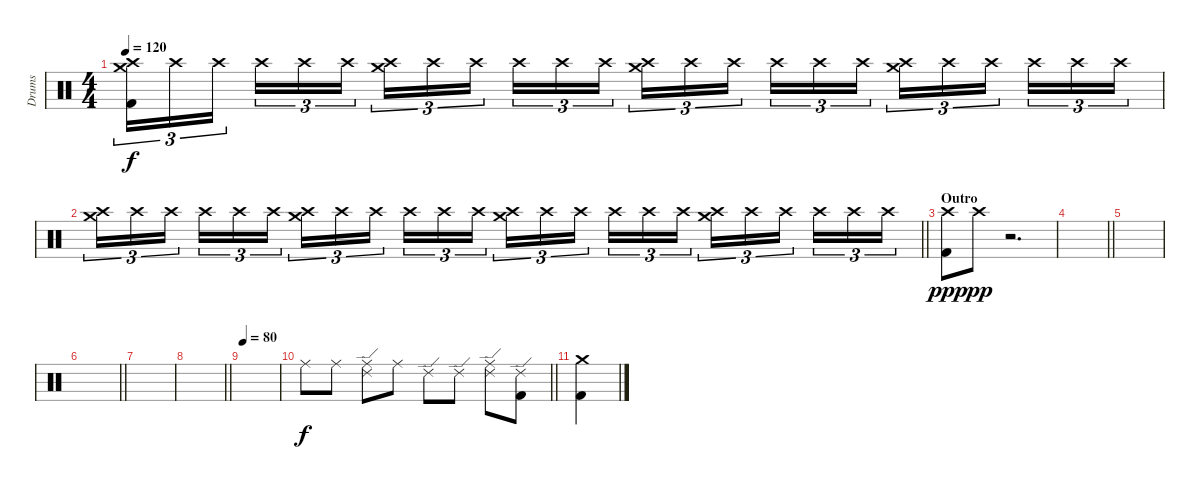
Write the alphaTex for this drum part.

\track ("Drums" "Drums") {instrument percussion}
\staff {score}
\articulation defaults
\ts (4 4)
\tempo 120
\clef neutral
\ks c
("Crash high (hit)" "Crash medium (hit)" "Kick (hit) 2").16{tu (3 2) dy f} "Crash high (hit)".16{tu (3 2)} "Crash high (hit)".16{tu (3 2) beam splitsecondary} "Crash high (hit)".16{tu (3 2)} "Crash high (hit)".16{tu (3 2)} "Crash high (hit)".16{tu (3 2)} ("Crash high (hit)" "Crash medium (hit)").16{tu (3 2)} "Crash high (hit)".16{tu (3 2)} "Crash high (hit)".16{tu (3 2) beam splitsecondary} "Crash high (hit)".16{tu (3 2)} "Crash high (hit)".16{tu (3 2)} "Crash high (hit)".16{tu (3 2)} ("Crash high (hit)" "Crash medium (hit)").16{tu (3 2)} "Crash high (hit)".16{tu (3 2)} "Crash high (hit)".16{tu (3 2) beam splitsecondary} "Crash high (hit)".16{tu (3 2)} "Crash high (hit)".16{tu (3 2)} "Crash high (hit)".16{tu (3 2)} ("Crash high (hit)" "Crash medium (hit)").16{tu (3 2)} "Crash high (hit)".16{tu (3 2)} "Crash high (hit)".16{tu (3 2) beam splitsecondary} "Crash high (hit)".16{tu (3 2)} "Crash high (hit)".16{tu (3 2)} "Crash high (hit)".16{tu (3 2)} |
\barLineRight lightlight
("Crash high (hit)" "Crash medium (hit)").16{tu (3 2)} "Crash high (hit)".16{tu (3 2)} "Crash high (hit)".16{tu (3 2) beam splitsecondary} "Crash high (hit)".16{tu (3 2)} "Crash high (hit)".16{tu (3 2)} "Crash high (hit)".16{tu (3 2)} ("Crash high (hit)" "Crash medium (hit)").16{tu (3 2)} "Crash high (hit)".16{tu (3 2)} "Crash high (hit)".16{tu (3 2) beam splitsecondary} "Crash high (hit)".16{tu (3 2)} "Crash high (hit)".16{tu (3 2)} "Crash high (hit)".16{tu (3 2)} ("Crash high (hit)" "Crash medium (hit)").16{tu (3 2)} "Crash high (hit)".16{tu (3 2)} "Crash high (hit)".16{tu (3 2) beam splitsecondary} "Crash high (hit)".16{tu (3 2)} "Crash high (hit)".16{tu (3 2)} "Crash high (hit)".16{tu (3 2)} ("Crash high (hit)" "Crash medium (hit)").16{tu (3 2)} "Crash high (hit)".16{tu (3 2)} "Crash high (hit)".16{tu (3 2) beam splitsecondary} "Crash high (hit)".16{tu (3 2)} "Crash high (hit)".16{tu (3 2)} "Crash high (hit)".16{tu (3 2)} |
\section ("" "Outro")
("Crash high (hit)" "Kick (hit) 2").8{dy ppp} "Crash high (hit)".8{dy pp} r.2{d} |
\barLineRight lightlight
|
|
\barLineRight lightlight
|
|
\barLineRight lightlight
|
\tempo 80
|
\barLineRight lightlight "Ride (middle)".8{dy f} "Ride (middle)".8
("Ride (edge) 2" "Ride (middle)").8 "Ride (middle)".8 "Ride (edge) 2".8 "Ride (edge) 2".8 ("Ride (middle)" "Ride (edge) 2").8 ("Ride (edge) 2" "Kick (hit) 2").8 |
("Crash medium (hit)" "Kick (hit) 2").4
